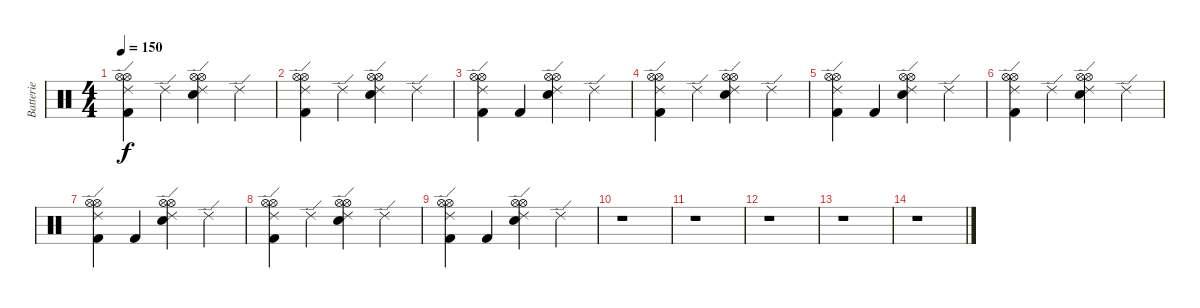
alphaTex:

\track ("Batterie" "Batterie") {instrument percussion}
\staff {score}
\articulation defaults
\ts (4 4)
\tempo 150
\clef neutral
\ks c
("Hi-Hat (open)" "Hi-Hat (open)" "Ride (edge) 2" "Kick (hit) 2").4{dy f} "Ride (edge) 2".4 ("Snare (hit) 2" "Hi-Hat (open)" "Hi-Hat (open)" "Ride (edge) 2").4 "Ride (edge) 2".4 |
\section ("" "")
("Hi-Hat (open)" "Hi-Hat (open)" "Ride (edge) 2" "Kick (hit) 2").4 "Ride (edge) 2".4 ("Snare (hit) 2" "Hi-Hat (open)" "Hi-Hat (open)" "Ride (edge) 2").4 "Ride (edge) 2".4 |
("Hi-Hat (open)" "Hi-Hat (open)" "Ride (edge) 2" "Kick (hit) 2").4 "Kick (hit) 2".4 ("Snare (hit) 2" "Hi-Hat (open)" "Hi-Hat (open)" "Ride (edge) 2").4 "Ride (edge) 2".4 |
("Hi-Hat (open)" "Hi-Hat (open)" "Ride (edge) 2" "Kick (hit) 2").4 "Ride (edge) 2".4 ("Snare (hit) 2" "Hi-Hat (open)" "Hi-Hat (open)" "Ride (edge) 2").4 "Ride (edge) 2".4 |
("Hi-Hat (open)" "Hi-Hat (open)" "Ride (edge) 2" "Kick (hit) 2").4 "Kick (hit) 2".4 ("Snare (hit) 2" "Hi-Hat (open)" "Hi-Hat (open)" "Ride (edge) 2").4 "Ride (edge) 2".4 |
("Hi-Hat (open)" "Hi-Hat (open)" "Ride (edge) 2" "Kick (hit) 2").4 "Ride (edge) 2".4 ("Snare (hit) 2" "Hi-Hat (open)" "Hi-Hat (open)" "Ride (edge) 2").4 "Ride (edge) 2".4 |
("Hi-Hat (open)" "Hi-Hat (open)" "Ride (edge) 2" "Kick (hit) 2").4 "Kick (hit) 2".4 ("Snare (hit) 2" "Hi-Hat (open)" "Hi-Hat (open)" "Ride (edge) 2").4 "Ride (edge) 2".4 |
("Hi-Hat (open)" "Hi-Hat (open)" "Ride (edge) 2" "Kick (hit) 2").4 "Ride (edge) 2".4 ("Snare (hit) 2" "Hi-Hat (open)" "Hi-Hat (open)" "Ride (edge) 2").4 "Ride (edge) 2".4 |
("Hi-Hat (open)" "Hi-Hat (open)" "Ride (edge) 2" "Kick (hit) 2").4 "Kick (hit) 2".4 ("Snare (hit) 2" "Hi-Hat (open)" "Hi-Hat (open)" "Ride (edge) 2").4 "Ride (edge) 2".4 |
r.1 |
r.1 |
r.1 |
r.1 |
r.1
